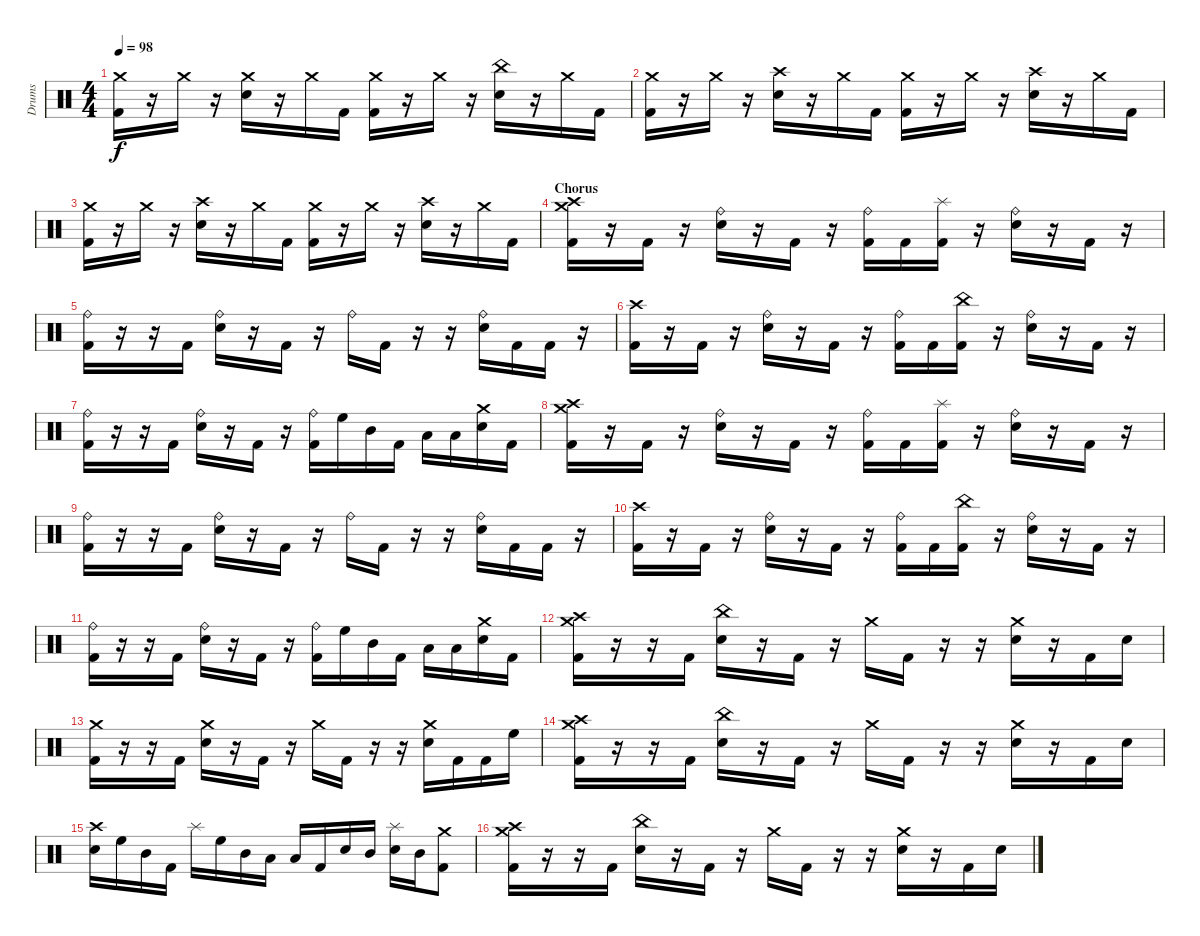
\track ("Drums" "Drums") {instrument percussion}
\staff {score}
\articulation defaults
\ts (4 4)
\tempo 98
\clef neutral
\ks c
("Crash medium (hit)" "Kick (hit) 2").16{dy f} r.16 "Crash medium (hit)".16 r.16 ("Crash medium (hit)" "Electric Snare (hit)").16 r.16 "Crash medium (hit)".16 "Kick (hit) 2".16 ("Crash medium (hit)" "Kick (hit) 2").16 r.16 "Crash medium (hit)".16 r.16 ("China (hit)" "Electric Snare (hit)").16 r.16 "Crash medium (hit)".16 "Kick (hit) 2".16 |
("Crash medium (hit)" "Kick (hit) 2").16 r.16 "Crash medium (hit)".16 r.16 ("Crash high (hit)" "Electric Snare (hit)").16 r.16 "Crash medium (hit)".16 "Kick (hit) 2".16 ("Crash medium (hit)" "Kick (hit) 2").16 r.16 "Crash medium (hit)".16 r.16 ("Crash high (hit)" "Electric Snare (hit)").16 r.16 "Crash medium (hit)".16 "Kick (hit) 2".16 |
("Crash medium (hit)" "Kick (hit) 2").16 r.16 "Crash medium (hit)".16 r.16 ("Crash high (hit)" "Electric Snare (hit)").16 r.16 "Crash medium (hit)".16 "Kick (hit) 2".16 ("Crash medium (hit)" "Kick (hit) 2").16 r.16 "Crash medium (hit)".16 r.16 ("Crash high (hit)" "Electric Snare (hit)").16 r.16 "Crash medium (hit)".16 "Kick (hit) 2".16 |
\section ("" "Chorus")
("Crash medium (hit)" "Crash high (hit)" "Kick (hit) 2").16 r.16 "Kick (hit) 2".16 r.16 ("Ride (bell)" "Electric Snare (hit)").16 r.16 "Kick (hit) 2".16 r.16 ("Ride (bell)" "Kick (hit) 2").16 "Kick (hit) 2".16 ("Splash (hit)" "Kick (hit) 2").16 r.16 ("Ride (bell)" "Electric Snare (hit)").16 r.16 "Kick (hit) 2".16 r.16 |
("Ride (bell)" "Kick (hit) 2").16 r.16 r.16 "Kick (hit) 2".16 ("Ride (bell)" "Electric Snare (hit)").16 r.16 "Kick (hit) 2".16 r.16 "Ride (bell)".16 "Kick (hit) 2".16 r.16 r.16 ("Ride (bell)" "Electric Snare (hit)").16 "Kick (hit) 2".16 "Kick (hit) 2".16 r.16 |
("Crash high (hit)" "Kick (hit) 2").16 r.16 "Kick (hit) 2".16 r.16 ("Ride (bell)" "Electric Snare (hit)").16 r.16 "Kick (hit) 2".16 r.16 ("Ride (bell)" "Kick (hit) 2").16 "Kick (hit) 2".16 ("China (hit)" "Kick (hit) 2").16 r.16 ("Ride (bell)" "Electric Snare (hit)").16 r.16 "Kick (hit) 2".16 r.16 |
("Ride (bell)" "Kick (hit) 2").16 r.16 r.16 "Kick (hit) 2".16 ("Ride (bell)" "Electric Snare (hit)").16 r.16 "Kick (hit) 2".16 r.16 ("Ride (bell)" "Kick (hit) 2").16 "High Floor Tom (hit)".16 "Mid Tom (hit)".16 "Kick (hit) 2".16 "Low Tom (hit)".16 "Low Tom (hit)".16 ("Crash medium (hit)" "Electric Snare (hit)").16 "Kick (hit) 2".16 |
("Crash medium (hit)" "Crash high (hit)" "Kick (hit) 2").16 r.16 "Kick (hit) 2".16 r.16 ("Ride (bell)" "Electric Snare (hit)").16 r.16 "Kick (hit) 2".16 r.16 ("Ride (bell)" "Kick (hit) 2").16 "Kick (hit) 2".16 ("Splash (hit)" "Kick (hit) 2").16 r.16 ("Ride (bell)" "Electric Snare (hit)").16 r.16 "Kick (hit) 2".16 r.16 |
("Ride (bell)" "Kick (hit) 2").16 r.16 r.16 "Kick (hit) 2".16 ("Ride (bell)" "Electric Snare (hit)").16 r.16 "Kick (hit) 2".16 r.16 "Ride (bell)".16 "Kick (hit) 2".16 r.16 r.16 ("Ride (bell)" "Electric Snare (hit)").16 "Kick (hit) 2".16 "Kick (hit) 2".16 r.16 |
("Crash high (hit)" "Kick (hit) 2").16 r.16 "Kick (hit) 2".16 r.16 ("Ride (bell)" "Electric Snare (hit)").16 r.16 "Kick (hit) 2".16 r.16 ("Ride (bell)" "Kick (hit) 2").16 "Kick (hit) 2".16 ("China (hit)" "Kick (hit) 2").16 r.16 ("Ride (bell)" "Electric Snare (hit)").16 r.16 "Kick (hit) 2".16 r.16 |
("Ride (bell)" "Kick (hit) 2").16 r.16 r.16 "Kick (hit) 2".16 ("Ride (bell)" "Electric Snare (hit)").16 r.16 "Kick (hit) 2".16 r.16 ("Ride (bell)" "Kick (hit) 2").16 "High Floor Tom (hit)".16 "Mid Tom (hit)".16 "Kick (hit) 2".16 "Low Tom (hit)".16 "Low Tom (hit)".16 ("Crash medium (hit)" "Electric Snare (hit)").16 "Kick (hit) 2".16 |
\section ("" "")
("Crash medium (hit)" "Crash high (hit)" "Kick (hit) 2").16 r.16 r.16 "Kick (hit) 2".16 ("China (hit)" "Electric Snare (hit)").16 r.16 "Kick (hit) 2".16 r.16 "Crash medium (hit)".16 "Kick (hit) 2".16 r.16 r.16 ("Crash medium (hit)" "Electric Snare (hit)").16 r.16 "Kick (hit) 2".16 "Electric Snare (hit)".16 |
("Crash medium (hit)" "Kick (hit) 2").16 r.16 r.16 "Kick (hit) 2".16 ("Crash medium (hit)" "Electric Snare (hit)").16 r.16 "Kick (hit) 2".16 r.16 "Crash medium (hit)".16 "Kick (hit) 2".16 r.16 r.16 ("Crash medium (hit)" "Electric Snare (hit)").16 "Kick (hit) 2".16 "Kick (hit) 2".16 "High Floor Tom (hit)".16 |
("Crash medium (hit)" "Crash high (hit)" "Kick (hit) 2").16 r.16 r.16 "Kick (hit) 2".16 ("China (hit)" "Electric Snare (hit)").16 r.16 "Kick (hit) 2".16 r.16 "Crash medium (hit)".16 "Kick (hit) 2".16 r.16 r.16 ("Crash medium (hit)" "Electric Snare (hit)").16 r.16 "Kick (hit) 2".16 "Electric Snare (hit)".16 |
("Crash high (hit)" "Electric Snare (hit)").16 "High Floor Tom (hit)".16 "Mid Tom (hit)".16 "Kick (hit) 2".16 "Splash (hit)".16 "High Floor Tom (hit)".16 "Mid Tom (hit)".16 "Low Tom (hit)".16 "Low Floor Tom (hit)".16 "Kick (hit) 2".16 "Electric Snare (hit)".16 "Mid Tom (hit)".16 ("Splash (hit)" "Electric Snare (hit)").16 "Mid Tom (hit)".16 ("Crash medium (hit)" "Kick (hit) 2").8 |
("Crash medium (hit)" "Crash high (hit)" "Kick (hit) 2").16 r.16 r.16 "Kick (hit) 2".16 ("China (hit)" "Electric Snare (hit)").16 r.16 "Kick (hit) 2".16 r.16 "Crash medium (hit)".16 "Kick (hit) 2".16 r.16 r.16 ("Crash medium (hit)" "Electric Snare (hit)").16 r.16 "Kick (hit) 2".16 "Electric Snare (hit)".16
